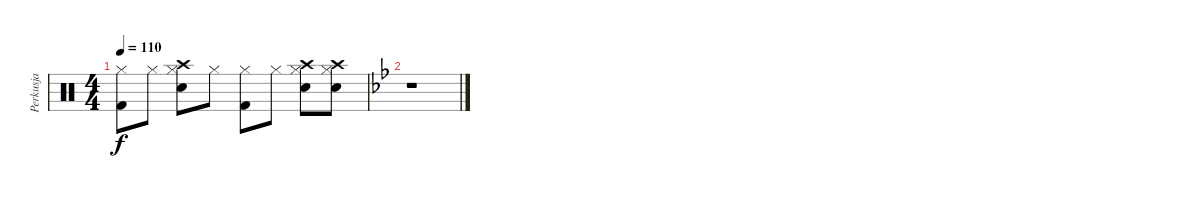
\track ("Perkusja" "Perkusja") {instrument percussion}
\staff {score}
\articulation defaults
\ts (4 4)
\tempo 110
\clef neutral
\ks c
("Hi-Hat (closed)" "Kick (hit) 2").8{dy f} "Hi-Hat (closed)".8 ("Hi-Hat (closed)" "Electric Snare (hit)" "Crash high (hit)").8 "Hi-Hat (closed)".8 ("Hi-Hat (closed)" "Kick (hit) 2").8 "Hi-Hat (closed)".8 ("Hi-Hat (closed)" "Electric Snare (hit)" "Crash high (hit)").8 ("Hi-Hat (closed)" "Electric Snare (hit)" "Crash high (hit)").8 |
\ks bb
r.1
